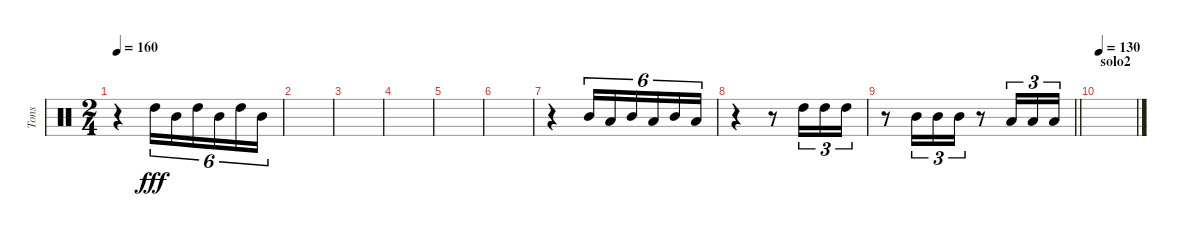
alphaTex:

\track ("Tons" "Tons") {instrument percussion}
\staff {score}
\articulation defaults
\ts (2 4)
\tempo 160
\clef neutral
\ks c
r.4{dy fff} "High Tom (hit)".16{tu (6 4)} "Mid Tom (hit)".16{tu (6 4)} "High Tom (hit)".16{tu (6 4)} "Mid Tom (hit)".16{tu (6 4)} "High Tom (hit)".16{tu (6 4)} "Mid Tom (hit)".16{tu (6 4)} |
|
|
|
|
|
r.4 "Mid Tom (hit)".16{tu (6 4)} "Low Tom (hit)".16{tu (6 4)} "Mid Tom (hit)".16{tu (6 4)} "Low Tom (hit)".16{tu (6 4)} "Mid Tom (hit)".16{tu (6 4)} "Low Tom (hit)".16{tu (6 4)} |
r.4 r.8 "High Tom (hit)".16{tu (3 2)} "High Tom (hit)".16{tu (3 2)} "High Tom (hit)".16{tu (3 2)} |
\barLineRight lightlight
r.8 "Mid Tom (hit)".16{tu (3 2)} "Mid Tom (hit)".16{tu (3 2)} "Mid Tom (hit)".16{tu (3 2)} r.8 "Low Tom (hit)".16{tu (3 2)} "Low Tom (hit)".16{tu (3 2)} "Low Tom (hit)".16{tu (3 2)} |
\section ("" "solo2")
\tempo 130
